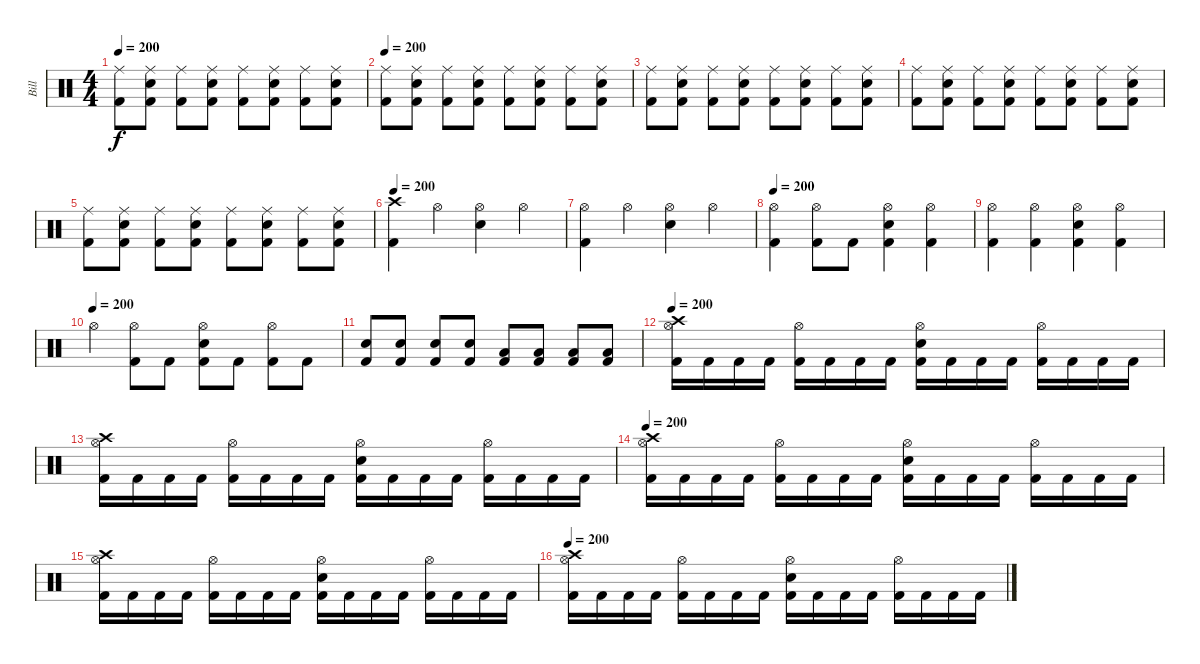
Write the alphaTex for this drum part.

\track ("Bill" "Bill") {instrument percussion}
\staff {score}
\articulation defaults
\ts (4 4)
\tempo 200
\clef neutral
\ks c
("Ride (middle)" "Kick (hit) 2").8{dy f} ("Ride (middle)" "Snare (hit) 2" "Kick (hit) 2").8 ("Ride (middle)" "Kick (hit) 2").8 ("Ride (middle)" "Snare (hit) 2" "Kick (hit) 2").8 ("Ride (middle)" "Kick (hit) 2").8 ("Ride (middle)" "Snare (hit) 2" "Kick (hit) 2").8 ("Ride (middle)" "Kick (hit) 2").8 ("Ride (middle)" "Snare (hit) 2" "Kick (hit) 2").8 |
\tempo 200
("Ride (middle)" "Kick (hit) 2").8 ("Ride (middle)" "Snare (hit) 2" "Kick (hit) 2").8 ("Ride (middle)" "Kick (hit) 2").8 ("Ride (middle)" "Snare (hit) 2" "Kick (hit) 2").8 ("Ride (middle)" "Kick (hit) 2").8 ("Ride (middle)" "Snare (hit) 2" "Kick (hit) 2").8 ("Ride (middle)" "Kick (hit) 2").8 ("Ride (middle)" "Snare (hit) 2" "Kick (hit) 2").8 |
("Ride (middle)" "Kick (hit) 2").8 ("Ride (middle)" "Snare (hit) 2" "Kick (hit) 2").8 ("Ride (middle)" "Kick (hit) 2").8 ("Ride (middle)" "Snare (hit) 2" "Kick (hit) 2").8 ("Ride (middle)" "Kick (hit) 2").8 ("Ride (middle)" "Snare (hit) 2" "Kick (hit) 2").8 ("Ride (middle)" "Kick (hit) 2").8 ("Ride (middle)" "Snare (hit) 2" "Kick (hit) 2").8 |
("Ride (middle)" "Kick (hit) 2").8 ("Ride (middle)" "Snare (hit) 2" "Kick (hit) 2").8 ("Ride (middle)" "Kick (hit) 2").8 ("Ride (middle)" "Snare (hit) 2" "Kick (hit) 2").8 ("Ride (middle)" "Kick (hit) 2").8 ("Ride (middle)" "Snare (hit) 2" "Kick (hit) 2").8 ("Ride (middle)" "Kick (hit) 2").8 ("Ride (middle)" "Snare (hit) 2" "Kick (hit) 2").8 |
("Ride (middle)" "Kick (hit) 2").8 ("Ride (middle)" "Snare (hit) 2" "Kick (hit) 2").8 ("Ride (middle)" "Kick (hit) 2").8 ("Ride (middle)" "Snare (hit) 2" "Kick (hit) 2").8 ("Ride (middle)" "Kick (hit) 2").8 ("Ride (middle)" "Snare (hit) 2" "Kick (hit) 2").8 ("Ride (middle)" "Kick (hit) 2").8 ("Ride (middle)" "Snare (hit) 2" "Kick (hit) 2").8 |
\tempo 200
("Crash high (hit)" "Kick (hit) 2").4 "Hi-Hat (open)".4 ("Hi-Hat (open)" "Snare (hit) 2").4 "Hi-Hat (open)".4 |
("Hi-Hat (open)" "Kick (hit) 2").4 "Hi-Hat (open)".4 ("Hi-Hat (open)" "Snare (hit) 2").4 "Hi-Hat (open)".4 |
\tempo 200
("Hi-Hat (open)" "Kick (hit) 2").4 ("Hi-Hat (open)" "Kick (hit) 2").8 "Kick (hit) 2".8 ("Hi-Hat (open)" "Snare (hit) 2" "Kick (hit) 2").4 ("Hi-Hat (open)" "Kick (hit) 2").4 |
("Hi-Hat (open)" "Kick (hit) 2").4 ("Hi-Hat (open)" "Kick (hit) 2").4 ("Hi-Hat (open)" "Snare (hit) 2" "Kick (hit) 2").4 ("Hi-Hat (open)" "Kick (hit) 2").4 |
\tempo (200)
"Hi-Hat (open)".4 ("Hi-Hat (open)" "Kick (hit) 2").8 "Kick (hit) 2".8 ("Hi-Hat (open)" "Snare (hit) 2" "Kick (hit) 2").8 "Kick (hit) 2".8 ("Hi-Hat (open)" "Kick (hit) 2").8 "Kick (hit) 2".8 |
("Snare (hit) 2" "Kick (hit) 2").8 ("Snare (hit) 2" "Kick (hit) 2").8 ("Snare (hit) 2" "Kick (hit) 2").8 ("Snare (hit) 2" "Kick (hit) 2").8 ("Low Floor Tom (hit)" "Kick (hit) 2").8 ("Low Floor Tom (hit)" "Kick (hit) 2").8 ("Low Floor Tom (hit)" "Kick (hit) 2").8 ("Low Floor Tom (hit)" "Kick (hit) 2").8 |
\tempo 200
("Hi-Hat (open)" "Crash high (hit)" "Kick (hit) 2").16 "Kick (hit) 2".16 "Kick (hit) 2".16 "Kick (hit) 2".16 ("Hi-Hat (open)" "Kick (hit) 2").16 "Kick (hit) 2".16 "Kick (hit) 2".16 "Kick (hit) 2".16 ("Hi-Hat (open)" "Snare (hit) 2" "Kick (hit) 2").16 "Kick (hit) 2".16 "Kick (hit) 2".16 "Kick (hit) 2".16 ("Hi-Hat (open)" "Kick (hit) 2").16 "Kick (hit) 2".16 "Kick (hit) 2".16 "Kick (hit) 2".16 |
("Hi-Hat (open)" "Crash high (hit)" "Kick (hit) 2").16 "Kick (hit) 2".16 "Kick (hit) 2".16 "Kick (hit) 2".16 ("Hi-Hat (open)" "Kick (hit) 2").16 "Kick (hit) 2".16 "Kick (hit) 2".16 "Kick (hit) 2".16 ("Hi-Hat (open)" "Snare (hit) 2" "Kick (hit) 2").16 "Kick (hit) 2".16 "Kick (hit) 2".16 "Kick (hit) 2".16 ("Hi-Hat (open)" "Kick (hit) 2").16 "Kick (hit) 2".16 "Kick (hit) 2".16 "Kick (hit) 2".16 |
\tempo 200
("Hi-Hat (open)" "Crash high (hit)" "Kick (hit) 2").16 "Kick (hit) 2".16 "Kick (hit) 2".16 "Kick (hit) 2".16 ("Hi-Hat (open)" "Kick (hit) 2").16 "Kick (hit) 2".16 "Kick (hit) 2".16 "Kick (hit) 2".16 ("Hi-Hat (open)" "Snare (hit) 2" "Kick (hit) 2").16 "Kick (hit) 2".16 "Kick (hit) 2".16 "Kick (hit) 2".16 ("Hi-Hat (open)" "Kick (hit) 2").16 "Kick (hit) 2".16 "Kick (hit) 2".16 "Kick (hit) 2".16 |
("Hi-Hat (open)" "Crash high (hit)" "Kick (hit) 2").16 "Kick (hit) 2".16 "Kick (hit) 2".16 "Kick (hit) 2".16 ("Hi-Hat (open)" "Kick (hit) 2").16 "Kick (hit) 2".16 "Kick (hit) 2".16 "Kick (hit) 2".16 ("Hi-Hat (open)" "Snare (hit) 2" "Kick (hit) 2").16 "Kick (hit) 2".16 "Kick (hit) 2".16 "Kick (hit) 2".16 ("Hi-Hat (open)" "Kick (hit) 2").16 "Kick (hit) 2".16 "Kick (hit) 2".16 "Kick (hit) 2".16 |
\tempo 200
("Hi-Hat (open)" "Crash high (hit)" "Kick (hit) 2").16 "Kick (hit) 2".16 "Kick (hit) 2".16 "Kick (hit) 2".16 ("Hi-Hat (open)" "Kick (hit) 2").16 "Kick (hit) 2".16 "Kick (hit) 2".16 "Kick (hit) 2".16 ("Hi-Hat (open)" "Snare (hit) 2" "Kick (hit) 2").16 "Kick (hit) 2".16 "Kick (hit) 2".16 "Kick (hit) 2".16 ("Hi-Hat (open)" "Kick (hit) 2").16 "Kick (hit) 2".16 "Kick (hit) 2".16 "Kick (hit) 2".16
